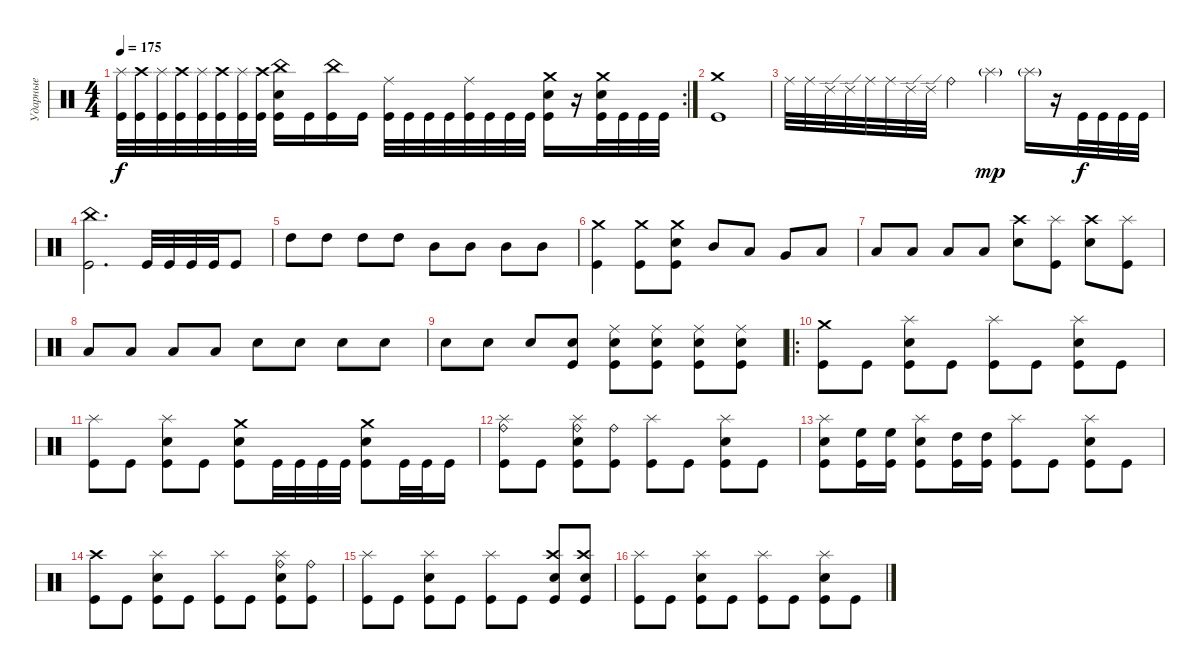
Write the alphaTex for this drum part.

\track ("Ударные" "Ударные") {instrument percussion}
\staff {score}
\articulation defaults
\rc 2
\ts (4 4)
\tempo 175
\clef neutral
\ks c
("Splash (hit)" "Kick (hit)").32{dy f} ("Crash high (hit)" "Kick (hit)").32 ("Splash (hit)" "Kick (hit)").32 ("Crash high (hit)" "Kick (hit)").32 ("Splash (hit)" "Kick (hit)").32 ("Crash high (hit)" "Kick (hit)").32 ("Splash (hit)" "Kick (hit)").32 ("Crash high (hit)" "Kick (hit)").32 ("Snare (hit) 2" "China (hit)" "Kick (hit)").16 "Kick (hit)".16 ("China (hit)" "Kick (hit)").16 "Kick (hit)".16 ("Ride (middle)" "Kick (hit)").32 "Kick (hit)".32 "Kick (hit)".32 "Kick (hit)".32 ("Ride (middle)" "Kick (hit)").32 "Kick (hit)".32 "Kick (hit)".32 "Kick (hit)".32 ("Snare (hit) 2" "Crash medium (hit)" "Kick (hit)").16 r.16 ("Snare (hit) 2" "Crash medium (hit)" "Kick (hit)").32 "Kick (hit)".32 "Kick (hit)".32 "Kick (hit)".32 |
("Crash medium (hit)" "Kick (hit)").1 |
"Ride (middle)".32 "Ride (middle)".32 "Ride (edge) 2".32 "Ride (edge) 2".32 "Ride (middle)".32 "Ride (middle)".32 "Ride (edge) 2".32 "Ride (edge) 2".32 "Ride (bell)".4 "Splash (hit)"{g}.4{dy mp} "Splash (hit)"{g}.16 r.16 "Kick (hit)".32{dy f} "Kick (hit)".32 "Kick (hit)".32 "Kick (hit)".32 |
("China (hit)" "Kick (hit)").2{d} "Kick (hit)".32 "Kick (hit)".32 "Kick (hit)".32 "Kick (hit)".32 "Kick (hit)".8 |
"High Tom (hit)".8 "High Tom (hit)".8 "High Tom (hit)".8 "High Tom (hit)".8 "Mid Tom (hit)".8 "Mid Tom (hit)".8 "Mid Tom (hit)".8 "Mid Tom (hit)".8 |
("Crash medium (hit)" "Kick (hit)").4 ("Crash medium (hit)" "Kick (hit)").8 ("Snare (hit) 2" "Crash medium (hit)" "Kick (hit)").8 "Mid Tom (hit)".8 "Low Tom (hit)".8 "Very Low Tom (hit)".8 "Low Floor Tom (hit)".8 |
"Low Floor Tom (hit)".8 "Low Floor Tom (hit)".8 "Low Floor Tom (hit)".8 "Low Floor Tom (hit)".8 ("Crash high (hit)" "Snare (hit) 2").8 ("Kick (hit)" "Splash (hit)").8 ("Crash high (hit)" "Snare (hit) 2").8 ("Kick (hit)" "Splash (hit)").8 |
"Low Tom (hit)".8 "Low Tom (hit)".8 "Low Tom (hit)".8 "Low Tom (hit)".8 "Snare (hit) 2".8 "Snare (hit) 2".8 "Snare (hit) 2".8 "Snare (hit) 2".8 |
"Snare (hit) 2".8 "Snare (hit) 2".8 "Snare (hit) 2".8 ("Snare (hit) 2" "Kick (hit)").8 ("Ride (middle)" "Snare (hit) 2" "Kick (hit)").8 ("Ride (middle)" "Snare (hit) 2" "Kick (hit)").8 ("Ride (middle)" "Snare (hit) 2" "Kick (hit)").8 ("Ride (middle)" "Snare (hit) 2" "Kick (hit)").8 |
\ro
("Crash medium (hit)" "Kick (hit)").8 "Kick (hit)".8 ("Snare (hit) 2" "Splash (hit)" "Kick (hit)").8 "Kick (hit)".8 ("Splash (hit)" "Kick (hit)").8 "Kick (hit)".8 ("Snare (hit) 2" "Splash (hit)" "Kick (hit)").8 "Kick (hit)".8 |
("Splash (hit)" "Kick (hit)").8 "Kick (hit)".8 ("Snare (hit) 2" "Splash (hit)" "Kick (hit)").8 "Kick (hit)".8 ("Snare (hit) 2" "Crash medium (hit)" "Kick (hit)").8 "Kick (hit)".32 "Kick (hit)".32 "Kick (hit)".32 "Kick (hit)".32 ("Snare (hit) 2" "Crash medium (hit)" "Kick (hit)").8 "Kick (hit)".32 "Kick (hit)".32 "Kick (hit)".16 |
("Splash (hit)" "Ride (bell)" "Kick (hit)").8 "Kick (hit)".8 ("Snare (hit) 2" "Splash (hit)" "Ride (bell)" "Kick (hit)").8 ("Ride (bell)" "Kick (hit)").8 ("Splash (hit)" "Kick (hit)").8 "Kick (hit)".8 ("Snare (hit) 2" "Splash (hit)" "Kick (hit)").8 "Kick (hit)".8 |
("Snare (hit) 2" "Splash (hit)" "Kick (hit)").8 ("High Floor Tom (hit)" "Kick (hit)").16 ("High Floor Tom (hit)" "Kick (hit)").16 ("Snare (hit) 2" "Splash (hit)" "Kick (hit)").8 ("High Tom (hit)" "Kick (hit)").16 ("High Tom (hit)" "Kick (hit)").16 ("Splash (hit)" "Kick (hit)").8 "Kick (hit)".8 ("Snare (hit) 2" "Splash (hit)" "Kick (hit)").8 "Kick (hit)".8 |
("Crash high (hit)" "Kick (hit)").8 "Kick (hit)".8 ("Snare (hit) 2" "Splash (hit)" "Kick (hit)").8 "Kick (hit)".8 ("Splash (hit)" "Kick (hit)").8 "Kick (hit)".8 ("Snare (hit) 2" "Splash (hit)" "Ride (bell)" "Kick (hit)").8 ("Ride (bell)" "Kick (hit)").8 |
("Splash (hit)" "Kick (hit)").8 "Kick (hit)".8 ("Snare (hit) 2" "Splash (hit)" "Kick (hit)").8 "Kick (hit)".8 ("Splash (hit)" "Kick (hit)").8 "Kick (hit)".8 ("Snare (hit) 2" "Crash high (hit)" "Kick (hit)").8 ("Snare (hit) 2" "Crash high (hit)" "Kick (hit)").8 |
("Splash (hit)" "Kick (hit)").8 "Kick (hit)".8 ("Snare (hit) 2" "Splash (hit)" "Kick (hit)").8 "Kick (hit)".8 ("Splash (hit)" "Kick (hit)").8 "Kick (hit)".8 ("Snare (hit) 2" "Splash (hit)" "Kick (hit)").8 "Kick (hit)".8
